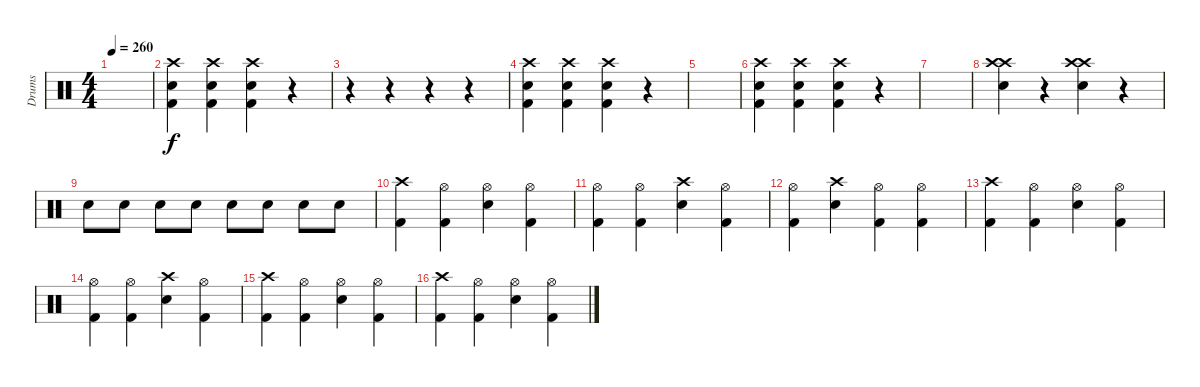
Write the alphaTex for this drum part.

\track ("Drums" "Drums") {instrument percussion bank 2}
\staff {score}
\articulation defaults
\ts (4 4)
\tempo 260
\clef neutral
\ks c
|
("Crash high (hit)" "Snare (hit) 2" "Kick (hit) 2").4 ("Crash high (hit)" "Snare (hit) 2" "Kick (hit) 2").4 ("Crash high (hit)" "Snare (hit) 2" "Kick (hit) 2").4 r.4 |
r.4 r.4 r.4 r.4 |
("Crash high (hit)" "Snare (hit) 2" "Kick (hit) 2").4 ("Crash high (hit)" "Snare (hit) 2" "Kick (hit) 2").4 ("Crash high (hit)" "Snare (hit) 2" "Kick (hit) 2").4 r.4 |
|
("Crash high (hit)" "Snare (hit) 2" "Kick (hit) 2").4 ("Crash high (hit)" "Snare (hit) 2" "Kick (hit) 2").4 ("Crash high (hit)" "Snare (hit) 2" "Kick (hit) 2").4 r.4 |
|
("Crash high (hit)" "Snare (hit) 2" "Crash high (hit)").4 r.4 ("Crash high (hit)" "Snare (hit) 2" "Crash high (hit)").4 r.4 |
"Snare (hit) 2".8 "Snare (hit) 2".8 "Snare (hit) 2".8 "Snare (hit) 2".8 "Snare (hit) 2".8 "Snare (hit) 2".8 "Snare (hit) 2".8 "Snare (hit) 2".8 |
("Crash high (hit)" "Kick (hit) 2").4 ("Hi-Hat (open)" "Kick (hit) 2").4 ("Hi-Hat (open)" "Snare (hit) 2").4 ("Hi-Hat (open)" "Kick (hit) 2").4 |
("Hi-Hat (open)" "Kick (hit) 2").4 ("Hi-Hat (open)" "Kick (hit) 2").4 ("Snare (hit) 2" "Crash high (hit)").4 ("Hi-Hat (open)" "Kick (hit) 2").4 |
("Hi-Hat (open)" "Kick (hit) 2").4 ("Snare (hit) 2" "Crash high (hit)").4 ("Hi-Hat (open)" "Kick (hit) 2").4 ("Hi-Hat (open)" "Kick (hit) 2").4 |
("Crash high (hit)" "Kick (hit) 2").4 ("Hi-Hat (open)" "Kick (hit) 2").4 ("Hi-Hat (open)" "Snare (hit) 2").4 ("Hi-Hat (open)" "Kick (hit) 2").4 |
("Hi-Hat (open)" "Kick (hit) 2").4 ("Hi-Hat (open)" "Kick (hit) 2").4 ("Snare (hit) 2" "Crash high (hit)").4 ("Hi-Hat (open)" "Kick (hit) 2").4 |
("Crash high (hit)" "Kick (hit) 2").4 ("Hi-Hat (open)" "Kick (hit) 2").4 ("Hi-Hat (open)" "Snare (hit) 2").4 ("Hi-Hat (open)" "Kick (hit) 2").4 |
("Crash high (hit)" "Kick (hit) 2").4 ("Hi-Hat (open)" "Kick (hit) 2").4 ("Hi-Hat (open)" "Snare (hit) 2").4 ("Hi-Hat (open)" "Kick (hit) 2").4
